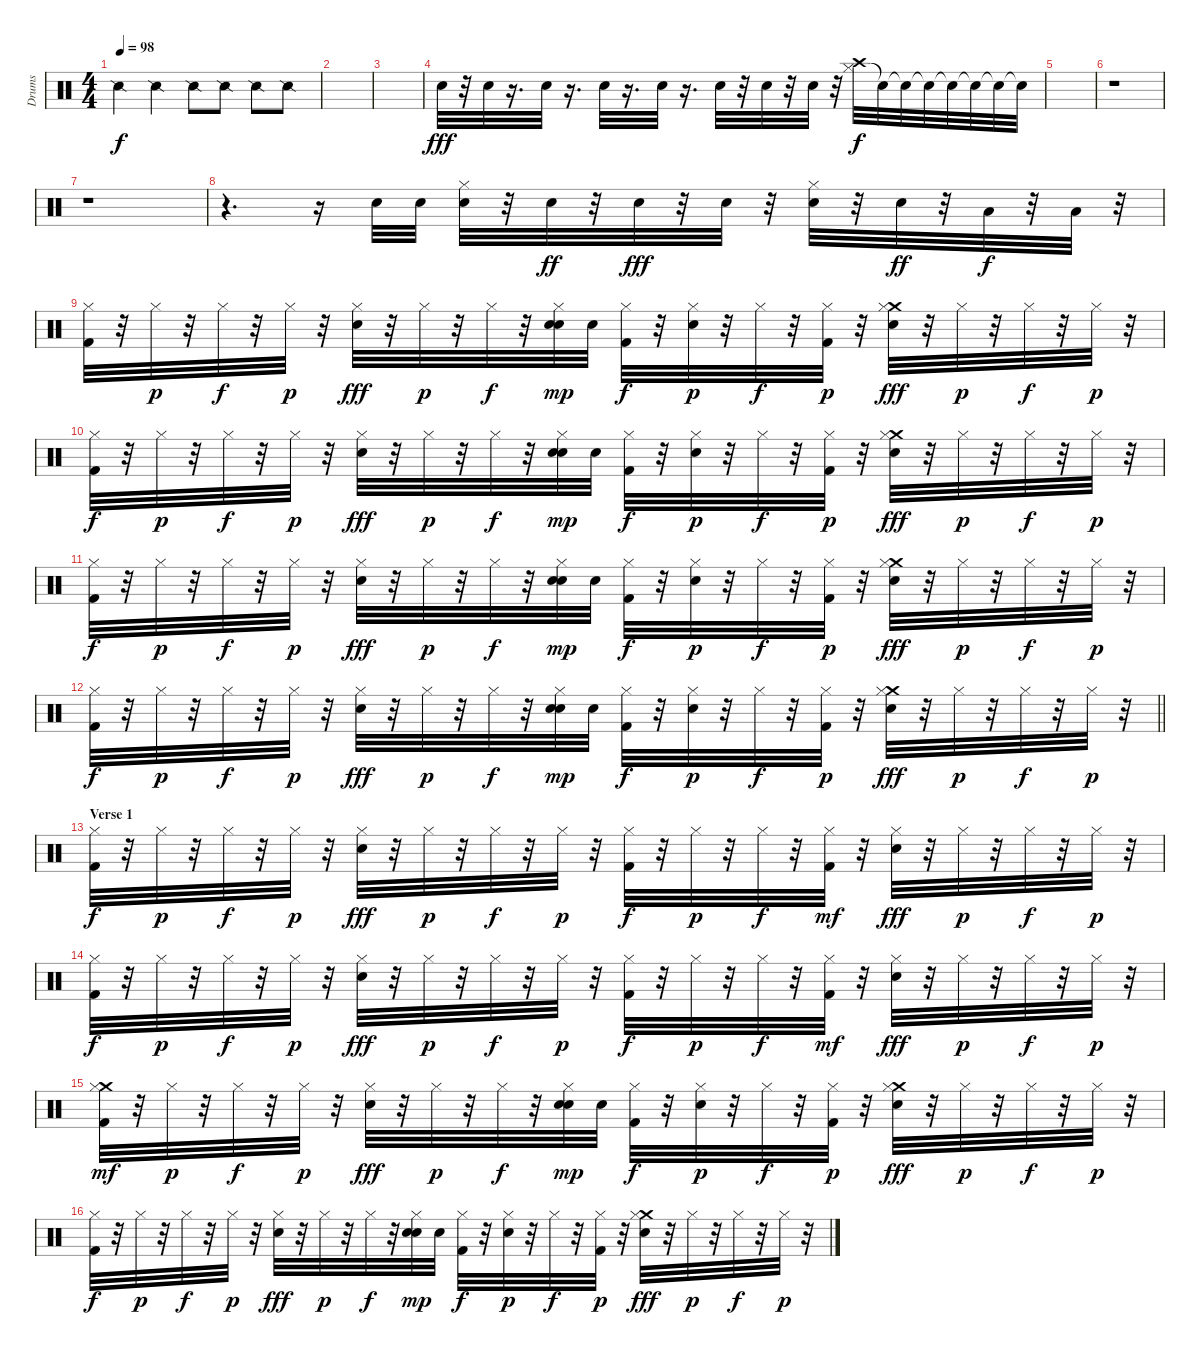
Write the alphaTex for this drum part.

\track ("Drums" "Drums") {instrument percussion}
\staff {score}
\articulation defaults
\ts (4 4)
\tempo 98
\clef neutral
\ks c "Snare (side stick) 2".4{dy f} "Snare (side stick) 2".4 "Snare (side stick) 2".8 "Snare (side stick) 2".8 "Snare (side stick) 2".8 "Snare (side stick) 2".8
|
|
|
"Electric Snare (hit)".32{dy fff} r.32 "Electric Snare (hit)".32 r.16{d} "Electric Snare (hit)".32 r.16{d} "Electric Snare (hit)".32 r.16{d} "Electric Snare (hit)".32 r.16{d} "Electric Snare (hit)".32 r.32 "Electric Snare (hit)".32 r.32 "Electric Snare (hit)".32 r.32 ("Hi-Hat (closed)" "Crash high (hit)").32{dy f} "Snare (hit)"{t}.32 "Snare (hit)"{t}.32 "Snare (hit)"{t}.32 "Snare (hit)"{t}.32 "Snare (hit)"{t}.32 "Snare (hit)"{t}.32 "Snare (hit)"{t}.32 |
|
r.1 |
r.1 |
r.4{d} r.16 "Snare (hit) 2".32 "Snare (hit) 2".32 ("Hi-Hat (closed)" "Electric Snare (hit)").32 r.32 "Electric Snare (hit)".32{dy ff} r.32 "Electric Snare (hit)".32{dy fff} r.32 "Electric Snare (hit)".32 r.32 ("Hi-Hat (closed)" "Snare (hit) 2").32 r.32 "Snare (hit) 2".32{dy ff} r.32 "Low Tom (hit)".32{dy f} r.32 "Low Tom (hit)".32 r.32 |
("Hi-Hat (closed)" "Kick (hit) 2").32 r.32 "Hi-Hat (closed)".32{dy p} r.32 "Hi-Hat (closed)".32{dy f} r.32 "Hi-Hat (closed)".32{dy p} r.32 ("Hi-Hat (closed)" "Electric Snare (hit)").32{dy fff} r.32 "Hi-Hat (closed)".32{dy p} r.32 "Hi-Hat (closed)".32{dy f} r.32 ("Hi-Hat (closed)" "Electric Snare (hit)" "Electric Snare (hit)").32{dy mp} "Electric Snare (hit)".32 ("Hi-Hat (closed)" "Kick (hit) 2").32{dy f} r.32 ("Hi-Hat (closed)" "Electric Snare (hit)").32{dy p} r.32 "Hi-Hat (closed)".32{dy f} r.32 ("Hi-Hat (closed)" "Kick (hit) 2").32{dy p} r.32 ("Crash medium (hit)" "Hi-Hat (closed)" "Electric Snare (hit)").32{dy fff} r.32 "Hi-Hat (closed)".32{dy p} r.32 "Hi-Hat (closed)".32{dy f} r.32 "Hi-Hat (closed)".32{dy p} r.32 |
("Hi-Hat (closed)" "Kick (hit) 2").32{dy f} r.32 "Hi-Hat (closed)".32{dy p} r.32 "Hi-Hat (closed)".32{dy f} r.32 "Hi-Hat (closed)".32{dy p} r.32 ("Hi-Hat (closed)" "Electric Snare (hit)").32{dy fff} r.32 "Hi-Hat (closed)".32{dy p} r.32 "Hi-Hat (closed)".32{dy f} r.32 ("Hi-Hat (closed)" "Electric Snare (hit)" "Electric Snare (hit)").32{dy mp} "Electric Snare (hit)".32 ("Hi-Hat (closed)" "Kick (hit) 2").32{dy f} r.32 ("Hi-Hat (closed)" "Electric Snare (hit)").32{dy p} r.32 "Hi-Hat (closed)".32{dy f} r.32 ("Hi-Hat (closed)" "Kick (hit) 2").32{dy p} r.32 ("Crash medium (hit)" "Hi-Hat (closed)" "Electric Snare (hit)").32{dy fff} r.32 "Hi-Hat (closed)".32{dy p} r.32 "Hi-Hat (closed)".32{dy f} r.32 "Hi-Hat (closed)".32{dy p} r.32 |
("Hi-Hat (closed)" "Kick (hit) 2").32{dy f} r.32 "Hi-Hat (closed)".32{dy p} r.32 "Hi-Hat (closed)".32{dy f} r.32 "Hi-Hat (closed)".32{dy p} r.32 ("Hi-Hat (closed)" "Electric Snare (hit)").32{dy fff} r.32 "Hi-Hat (closed)".32{dy p} r.32 "Hi-Hat (closed)".32{dy f} r.32 ("Hi-Hat (closed)" "Electric Snare (hit)" "Electric Snare (hit)").32{dy mp} "Electric Snare (hit)".32 ("Hi-Hat (closed)" "Kick (hit) 2").32{dy f} r.32 ("Hi-Hat (closed)" "Electric Snare (hit)").32{dy p} r.32 "Hi-Hat (closed)".32{dy f} r.32 ("Hi-Hat (closed)" "Kick (hit) 2").32{dy p} r.32 ("Crash medium (hit)" "Hi-Hat (closed)" "Electric Snare (hit)").32{dy fff} r.32 "Hi-Hat (closed)".32{dy p} r.32 "Hi-Hat (closed)".32{dy f} r.32 "Hi-Hat (closed)".32{dy p} r.32 |
\barLineRight lightlight
("Hi-Hat (closed)" "Kick (hit) 2").32{dy f} r.32 "Hi-Hat (closed)".32{dy p} r.32 "Hi-Hat (closed)".32{dy f} r.32 "Hi-Hat (closed)".32{dy p} r.32 ("Hi-Hat (closed)" "Electric Snare (hit)").32{dy fff} r.32 "Hi-Hat (closed)".32{dy p} r.32 "Hi-Hat (closed)".32{dy f} r.32 ("Hi-Hat (closed)" "Electric Snare (hit)" "Electric Snare (hit)").32{dy mp} "Electric Snare (hit)".32 ("Hi-Hat (closed)" "Kick (hit) 2").32{dy f} r.32 ("Hi-Hat (closed)" "Electric Snare (hit)").32{dy p} r.32 "Hi-Hat (closed)".32{dy f} r.32 ("Hi-Hat (closed)" "Kick (hit) 2").32{dy p} r.32 ("Crash medium (hit)" "Hi-Hat (closed)" "Electric Snare (hit)").32{dy fff} r.32 "Hi-Hat (closed)".32{dy p} r.32 "Hi-Hat (closed)".32{dy f} r.32 "Hi-Hat (closed)".32{dy p} r.32 |
\section ("" "Verse 1")
("Hi-Hat (closed)" "Kick (hit) 2").32{dy f} r.32 "Hi-Hat (closed)".32{dy p} r.32 "Hi-Hat (closed)".32{dy f} r.32 "Hi-Hat (closed)".32{dy p} r.32 ("Hi-Hat (closed)" "Electric Snare (hit)").32{dy fff} r.32 "Hi-Hat (closed)".32{dy p} r.32 "Hi-Hat (closed)".32{dy f} r.32 "Hi-Hat (closed)".32{dy p} r.32 ("Hi-Hat (closed)" "Kick (hit) 2").32{dy f} r.32 "Hi-Hat (closed)".32{dy p} r.32 "Hi-Hat (closed)".32{dy f} r.32 ("Hi-Hat (closed)" "Kick (hit) 2").32{dy mf} r.32 ("Hi-Hat (closed)" "Electric Snare (hit)").32{dy fff} r.32 "Hi-Hat (closed)".32{dy p} r.32 "Hi-Hat (closed)".32{dy f} r.32 "Hi-Hat (closed)".32{dy p} r.32 |
("Hi-Hat (closed)" "Kick (hit) 2").32{dy f} r.32 "Hi-Hat (closed)".32{dy p} r.32 "Hi-Hat (closed)".32{dy f} r.32 "Hi-Hat (closed)".32{dy p} r.32 ("Hi-Hat (closed)" "Electric Snare (hit)").32{dy fff} r.32 "Hi-Hat (closed)".32{dy p} r.32 "Hi-Hat (closed)".32{dy f} r.32 "Hi-Hat (closed)".32{dy p} r.32 ("Hi-Hat (closed)" "Kick (hit) 2").32{dy f} r.32 "Hi-Hat (closed)".32{dy p} r.32 "Hi-Hat (closed)".32{dy f} r.32 ("Hi-Hat (closed)" "Kick (hit) 2").32{dy mf} r.32 ("Hi-Hat (closed)" "Electric Snare (hit)").32{dy fff} r.32 "Hi-Hat (closed)".32{dy p} r.32 "Hi-Hat (closed)".32{dy f} r.32 "Hi-Hat (closed)".32{dy p} r.32 |
("Crash medium (hit)" "Hi-Hat (closed)" "Kick (hit) 2").32{dy mf} r.32 "Hi-Hat (closed)".32{dy p} r.32 "Hi-Hat (closed)".32{dy f} r.32 "Hi-Hat (closed)".32{dy p} r.32 ("Hi-Hat (closed)" "Electric Snare (hit)").32{dy fff} r.32 "Hi-Hat (closed)".32{dy p} r.32 "Hi-Hat (closed)".32{dy f} r.32 ("Hi-Hat (closed)" "Electric Snare (hit)" "Electric Snare (hit)").32{dy mp} "Electric Snare (hit)".32 ("Hi-Hat (closed)" "Kick (hit) 2").32{dy f} r.32 ("Hi-Hat (closed)" "Electric Snare (hit)").32{dy p} r.32 "Hi-Hat (closed)".32{dy f} r.32 ("Hi-Hat (closed)" "Kick (hit) 2").32{dy p} r.32 ("Crash medium (hit)" "Hi-Hat (closed)" "Electric Snare (hit)").32{dy fff} r.32 "Hi-Hat (closed)".32{dy p} r.32 "Hi-Hat (closed)".32{dy f} r.32 "Hi-Hat (closed)".32{dy p} r.32 |
("Hi-Hat (closed)" "Kick (hit) 2").32{dy f} r.32 "Hi-Hat (closed)".32{dy p} r.32 "Hi-Hat (closed)".32{dy f} r.32 "Hi-Hat (closed)".32{dy p} r.32 ("Hi-Hat (closed)" "Electric Snare (hit)").32{dy fff} r.32 "Hi-Hat (closed)".32{dy p} r.32 "Hi-Hat (closed)".32{dy f} r.32 ("Hi-Hat (closed)" "Electric Snare (hit)" "Electric Snare (hit)").32{dy mp} "Electric Snare (hit)".32 ("Hi-Hat (closed)" "Kick (hit) 2").32{dy f} r.32 ("Hi-Hat (closed)" "Electric Snare (hit)").32{dy p} r.32 "Hi-Hat (closed)".32{dy f} r.32 ("Hi-Hat (closed)" "Kick (hit) 2").32{dy p} r.32 ("Crash medium (hit)" "Hi-Hat (closed)" "Electric Snare (hit)").32{dy fff} r.32 "Hi-Hat (closed)".32{dy p} r.32 "Hi-Hat (closed)".32{dy f} r.32 "Hi-Hat (closed)".32{dy p} r.32
